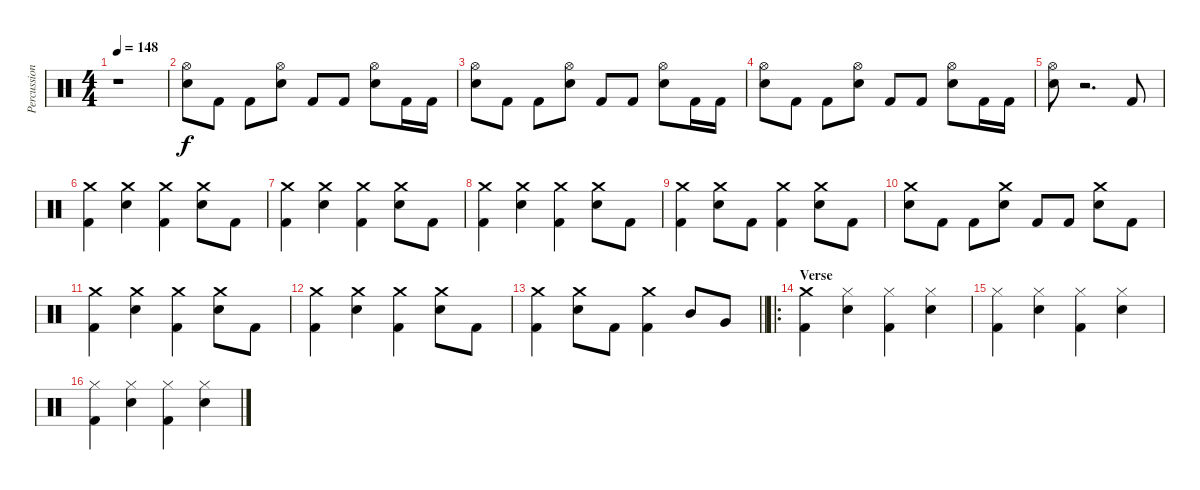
\track ("Percussion - Dennis Wolfe" "Percussion") {instrument percussion}
\staff {score}
\articulation defaults
\ts (4 4)
\tempo 148
\clef neutral
\ks c
r.1{dy f} |
("Hi-Hat (open)" "Snare (hit) 2").8 "Kick (hit) 2".8 "Kick (hit) 2".8 ("Hi-Hat (open)" "Snare (hit) 2").8 "Kick (hit) 2".8 "Kick (hit) 2".8 ("Hi-Hat (open)" "Snare (hit) 2").8 "Kick (hit) 2".16 "Kick (hit) 2".16 |
("Hi-Hat (open)" "Snare (hit) 2").8 "Kick (hit) 2".8 "Kick (hit) 2".8 ("Hi-Hat (open)" "Snare (hit) 2").8 "Kick (hit) 2".8 "Kick (hit) 2".8 ("Hi-Hat (open)" "Snare (hit) 2").8 "Kick (hit) 2".16 "Kick (hit) 2".16 |
("Hi-Hat (open)" "Snare (hit) 2").8 "Kick (hit) 2".8 "Kick (hit) 2".8 ("Hi-Hat (open)" "Snare (hit) 2").8 "Kick (hit) 2".8 "Kick (hit) 2".8 ("Hi-Hat (open)" "Snare (hit) 2").8 "Kick (hit) 2".16 "Kick (hit) 2".16 |
("Hi-Hat (open)" "Snare (hit) 2").8 r.2{d} "Kick (hit) 2".8 |
("Crash medium (hit)" "Kick (hit) 2").4 ("Crash medium (hit)" "Snare (hit) 2").4 ("Crash medium (hit)" "Kick (hit) 2").4 ("Crash medium (hit)" "Snare (hit) 2").8 "Kick (hit) 2".8 |
("Crash medium (hit)" "Kick (hit) 2").4 ("Crash medium (hit)" "Snare (hit) 2").4 ("Crash medium (hit)" "Kick (hit) 2").4 ("Crash medium (hit)" "Snare (hit) 2").8 "Kick (hit) 2".8 |
("Crash medium (hit)" "Kick (hit) 2").4 ("Crash medium (hit)" "Snare (hit) 2").4 ("Crash medium (hit)" "Kick (hit) 2").4 ("Crash medium (hit)" "Snare (hit) 2").8 "Kick (hit) 2".8 |
("Crash medium (hit)" "Kick (hit) 2").4 ("Crash medium (hit)" "Snare (hit) 2").8 "Kick (hit) 2".8 ("Crash medium (hit)" "Kick (hit) 2").4 ("Crash medium (hit)" "Snare (hit) 2").8 "Kick (hit) 2".8 |
("Crash medium (hit)" "Snare (hit) 2").8 "Kick (hit) 2".8 "Kick (hit) 2".8 ("Crash medium (hit)" "Snare (hit) 2").8 "Kick (hit) 2".8 "Kick (hit) 2".8 ("Crash medium (hit)" "Snare (hit) 2").8 "Kick (hit) 2".8 |
("Crash medium (hit)" "Kick (hit) 2").4 ("Crash medium (hit)" "Snare (hit) 2").4 ("Crash medium (hit)" "Kick (hit) 2").4 ("Crash medium (hit)" "Snare (hit) 2").8 "Kick (hit) 2".8 |
("Crash medium (hit)" "Kick (hit) 2").4 ("Crash medium (hit)" "Snare (hit) 2").4 ("Crash medium (hit)" "Kick (hit) 2").4 ("Crash medium (hit)" "Snare (hit) 2").8 "Kick (hit) 2".8 |
\barLineRight lightlight
("Crash medium (hit)" "Kick (hit) 2").4 ("Crash medium (hit)" "Snare (hit) 2").8 "Kick (hit) 2".8 ("Crash medium (hit)" "Kick (hit) 2").4 "Mid Tom (hit)".8 "Very Low Tom (hit)".8 |
\ro
\section ("" "Verse")
("Crash medium (hit)" "Kick (hit) 2").4 ("Hi-Hat (closed)" "Snare (hit) 2").4 ("Hi-Hat (closed)" "Kick (hit) 2").4 ("Hi-Hat (closed)" "Snare (hit) 2").4 |
("Hi-Hat (closed)" "Kick (hit) 2").4 ("Hi-Hat (closed)" "Snare (hit) 2").4 ("Hi-Hat (closed)" "Kick (hit) 2").4 ("Hi-Hat (closed)" "Snare (hit) 2").4 |
("Hi-Hat (closed)" "Kick (hit) 2").4 ("Hi-Hat (closed)" "Snare (hit) 2").4 ("Hi-Hat (closed)" "Kick (hit) 2").4 ("Hi-Hat (closed)" "Snare (hit) 2").4
